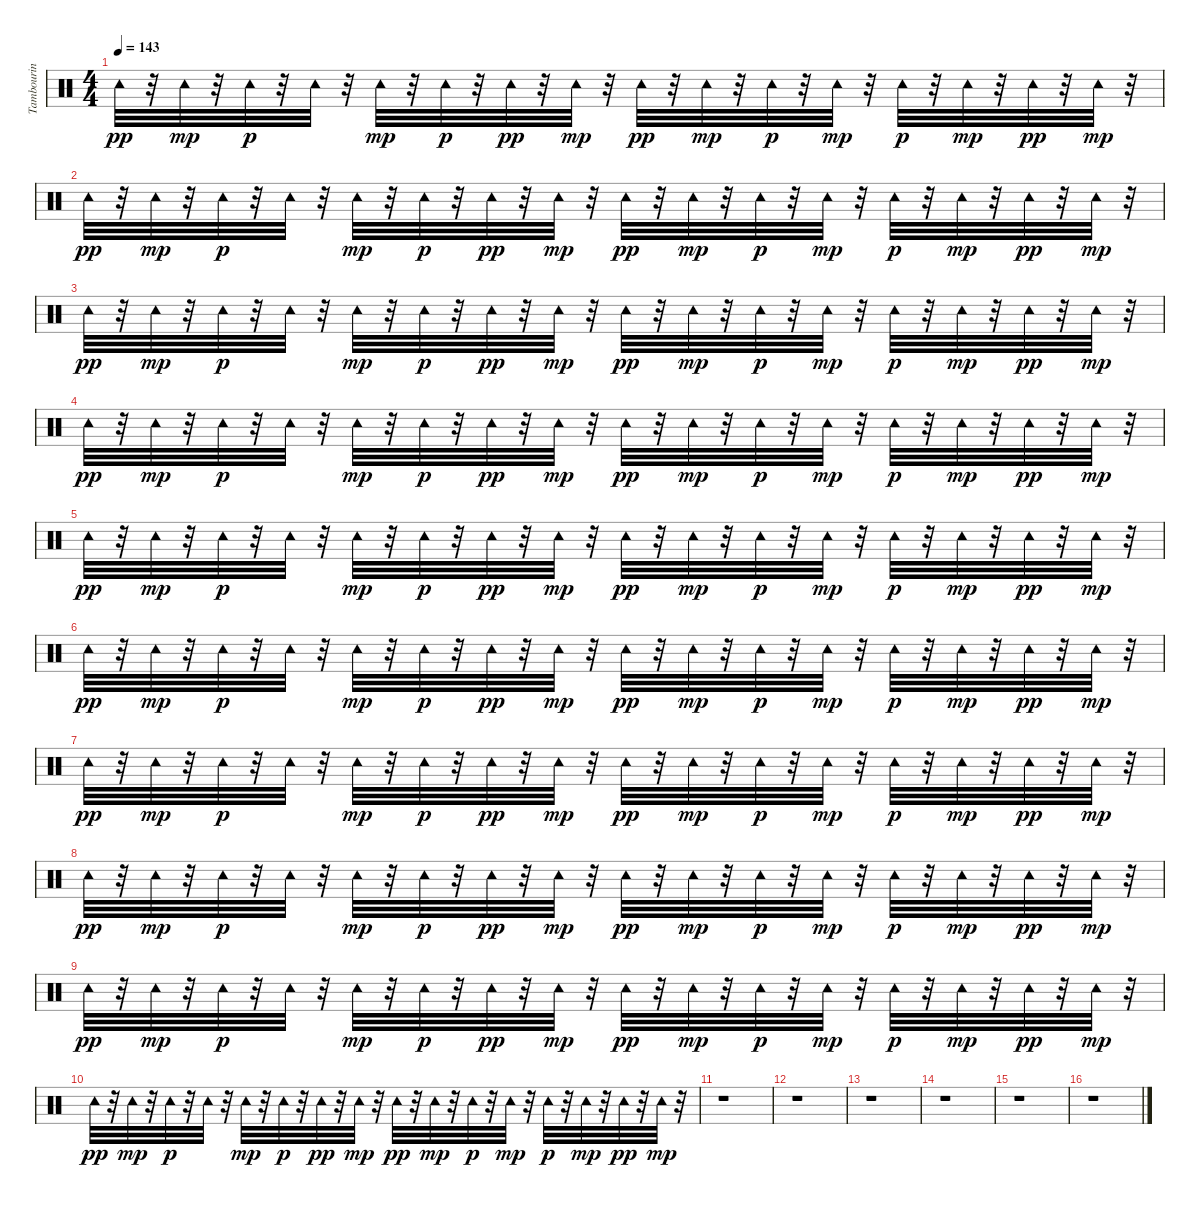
\track ("Tambourin" "Tambourin") {instrument percussion}
\staff {score}
\articulation defaults
\ts (4 4)
\tempo 143
\clef neutral
\ks c "Tambourine (hit)".32{dy pp}
r.32 "Tambourine (hit)".32{dy mp} r.32 "Tambourine (hit)".32{dy p} r.32 "Tambourine (hit)".32 r.32 "Tambourine (hit)".32{dy mp} r.32 "Tambourine (hit)".32{dy p} r.32 "Tambourine (hit)".32{dy pp} r.32 "Tambourine (hit)".32{dy mp} r.32 "Tambourine (hit)".32{dy pp} r.32 "Tambourine (hit)".32{dy mp} r.32 "Tambourine (hit)".32{dy p} r.32 "Tambourine (hit)".32{dy mp} r.32 "Tambourine (hit)".32{dy p} r.32 "Tambourine (hit)".32{dy mp} r.32 "Tambourine (hit)".32{dy pp} r.32 "Tambourine (hit)".32{dy mp} r.32 |
"Tambourine (hit)".32{dy pp} r.32 "Tambourine (hit)".32{dy mp} r.32 "Tambourine (hit)".32{dy p} r.32 "Tambourine (hit)".32 r.32 "Tambourine (hit)".32{dy mp} r.32 "Tambourine (hit)".32{dy p} r.32 "Tambourine (hit)".32{dy pp} r.32 "Tambourine (hit)".32{dy mp} r.32 "Tambourine (hit)".32{dy pp} r.32 "Tambourine (hit)".32{dy mp} r.32 "Tambourine (hit)".32{dy p} r.32 "Tambourine (hit)".32{dy mp} r.32 "Tambourine (hit)".32{dy p} r.32 "Tambourine (hit)".32{dy mp} r.32 "Tambourine (hit)".32{dy pp} r.32 "Tambourine (hit)".32{dy mp} r.32 |
"Tambourine (hit)".32{dy pp} r.32 "Tambourine (hit)".32{dy mp} r.32 "Tambourine (hit)".32{dy p} r.32 "Tambourine (hit)".32 r.32 "Tambourine (hit)".32{dy mp} r.32 "Tambourine (hit)".32{dy p} r.32 "Tambourine (hit)".32{dy pp} r.32 "Tambourine (hit)".32{dy mp} r.32 "Tambourine (hit)".32{dy pp} r.32 "Tambourine (hit)".32{dy mp} r.32 "Tambourine (hit)".32{dy p} r.32 "Tambourine (hit)".32{dy mp} r.32 "Tambourine (hit)".32{dy p} r.32 "Tambourine (hit)".32{dy mp} r.32 "Tambourine (hit)".32{dy pp} r.32 "Tambourine (hit)".32{dy mp} r.32 |
"Tambourine (hit)".32{dy pp} r.32 "Tambourine (hit)".32{dy mp} r.32 "Tambourine (hit)".32{dy p} r.32 "Tambourine (hit)".32 r.32 "Tambourine (hit)".32{dy mp} r.32 "Tambourine (hit)".32{dy p} r.32 "Tambourine (hit)".32{dy pp} r.32 "Tambourine (hit)".32{dy mp} r.32 "Tambourine (hit)".32{dy pp} r.32 "Tambourine (hit)".32{dy mp} r.32 "Tambourine (hit)".32{dy p} r.32 "Tambourine (hit)".32{dy mp} r.32 "Tambourine (hit)".32{dy p} r.32 "Tambourine (hit)".32{dy mp} r.32 "Tambourine (hit)".32{dy pp} r.32 "Tambourine (hit)".32{dy mp} r.32 |
"Tambourine (hit)".32{dy pp} r.32 "Tambourine (hit)".32{dy mp} r.32 "Tambourine (hit)".32{dy p} r.32 "Tambourine (hit)".32 r.32 "Tambourine (hit)".32{dy mp} r.32 "Tambourine (hit)".32{dy p} r.32 "Tambourine (hit)".32{dy pp} r.32 "Tambourine (hit)".32{dy mp} r.32 "Tambourine (hit)".32{dy pp} r.32 "Tambourine (hit)".32{dy mp} r.32 "Tambourine (hit)".32{dy p} r.32 "Tambourine (hit)".32{dy mp} r.32 "Tambourine (hit)".32{dy p} r.32 "Tambourine (hit)".32{dy mp} r.32 "Tambourine (hit)".32{dy pp} r.32 "Tambourine (hit)".32{dy mp} r.32 |
"Tambourine (hit)".32{dy pp} r.32 "Tambourine (hit)".32{dy mp} r.32 "Tambourine (hit)".32{dy p} r.32 "Tambourine (hit)".32 r.32 "Tambourine (hit)".32{dy mp} r.32 "Tambourine (hit)".32{dy p} r.32 "Tambourine (hit)".32{dy pp} r.32 "Tambourine (hit)".32{dy mp} r.32 "Tambourine (hit)".32{dy pp} r.32 "Tambourine (hit)".32{dy mp} r.32 "Tambourine (hit)".32{dy p} r.32 "Tambourine (hit)".32{dy mp} r.32 "Tambourine (hit)".32{dy p} r.32 "Tambourine (hit)".32{dy mp} r.32 "Tambourine (hit)".32{dy pp} r.32 "Tambourine (hit)".32{dy mp} r.32 |
"Tambourine (hit)".32{dy pp} r.32 "Tambourine (hit)".32{dy mp} r.32 "Tambourine (hit)".32{dy p} r.32 "Tambourine (hit)".32 r.32 "Tambourine (hit)".32{dy mp} r.32 "Tambourine (hit)".32{dy p} r.32 "Tambourine (hit)".32{dy pp} r.32 "Tambourine (hit)".32{dy mp} r.32 "Tambourine (hit)".32{dy pp} r.32 "Tambourine (hit)".32{dy mp} r.32 "Tambourine (hit)".32{dy p} r.32 "Tambourine (hit)".32{dy mp} r.32 "Tambourine (hit)".32{dy p} r.32 "Tambourine (hit)".32{dy mp} r.32 "Tambourine (hit)".32{dy pp} r.32 "Tambourine (hit)".32{dy mp} r.32 |
"Tambourine (hit)".32{dy pp} r.32 "Tambourine (hit)".32{dy mp} r.32 "Tambourine (hit)".32{dy p} r.32 "Tambourine (hit)".32 r.32 "Tambourine (hit)".32{dy mp} r.32 "Tambourine (hit)".32{dy p} r.32 "Tambourine (hit)".32{dy pp} r.32 "Tambourine (hit)".32{dy mp} r.32 "Tambourine (hit)".32{dy pp} r.32 "Tambourine (hit)".32{dy mp} r.32 "Tambourine (hit)".32{dy p} r.32 "Tambourine (hit)".32{dy mp} r.32 "Tambourine (hit)".32{dy p} r.32 "Tambourine (hit)".32{dy mp} r.32 "Tambourine (hit)".32{dy pp} r.32 "Tambourine (hit)".32{dy mp} r.32 |
"Tambourine (hit)".32{dy pp} r.32 "Tambourine (hit)".32{dy mp} r.32 "Tambourine (hit)".32{dy p} r.32 "Tambourine (hit)".32 r.32 "Tambourine (hit)".32{dy mp} r.32 "Tambourine (hit)".32{dy p} r.32 "Tambourine (hit)".32{dy pp} r.32 "Tambourine (hit)".32{dy mp} r.32 "Tambourine (hit)".32{dy pp} r.32 "Tambourine (hit)".32{dy mp} r.32 "Tambourine (hit)".32{dy p} r.32 "Tambourine (hit)".32{dy mp} r.32 "Tambourine (hit)".32{dy p} r.32 "Tambourine (hit)".32{dy mp} r.32 "Tambourine (hit)".32{dy pp} r.32 "Tambourine (hit)".32{dy mp} r.32 |
"Tambourine (hit)".32{dy pp} r.32 "Tambourine (hit)".32{dy mp} r.32 "Tambourine (hit)".32{dy p} r.32 "Tambourine (hit)".32 r.32 "Tambourine (hit)".32{dy mp} r.32 "Tambourine (hit)".32{dy p} r.32 "Tambourine (hit)".32{dy pp} r.32 "Tambourine (hit)".32{dy mp} r.32 "Tambourine (hit)".32{dy pp} r.32 "Tambourine (hit)".32{dy mp} r.32 "Tambourine (hit)".32{dy p} r.32 "Tambourine (hit)".32{dy mp} r.32 "Tambourine (hit)".32{dy p} r.32 "Tambourine (hit)".32{dy mp} r.32 "Tambourine (hit)".32{dy pp} r.32 "Tambourine (hit)".32{dy mp} r.32 |
r.1 |
r.1 |
r.1 |
r.1 |
r.1 |
r.1
